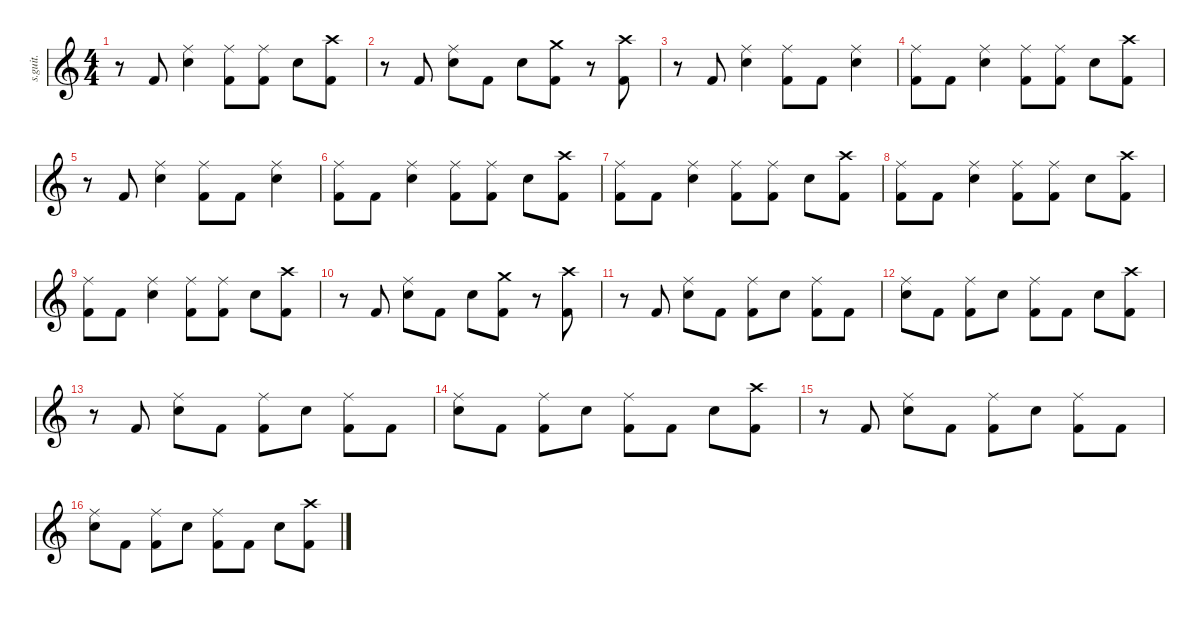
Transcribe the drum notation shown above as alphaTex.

\defaultSystemsLayout 4
\hideDynamics
\bracketExtendMode nobrackets
\track ("Nick Menza (Drums)" "s.guit.") {instrument percussion}
\staff {score}
\articulation defaults
\ts (4 4)
\tempo (196 hide)
\clef g2
\ks c
r.8{dy f} "Kick (hit) 2".8{lyrics (0 "") lyrics (1 "") lyrics (2 "") lyrics (3 "") lyrics (4 "")} ("Ride (middle)" "Snare (hit) 2").4{lyrics (0 "") lyrics (1 "") lyrics (2 "") lyrics (3 "") lyrics (4 "")} ("Ride (middle)" "Kick (hit) 2").8{lyrics (0 "") lyrics (1 "") lyrics (2 "") lyrics (3 "") lyrics (4 "")} ("Ride (middle)" "Kick (hit) 2").8{lyrics (0 "") lyrics (1 "") lyrics (2 "") lyrics (3 "") lyrics (4 "")} "Snare (hit) 2".8{lyrics (0 "") lyrics (1 "") lyrics (2 "") lyrics (3 "") lyrics (4 "")} ("Crash high (hit)" "Kick (hit) 2").8{lyrics (0 "") lyrics (1 "") lyrics (2 "") lyrics (3 "") lyrics (4 "")} |
r.8 "Kick (hit) 2".8{lyrics (0 "") lyrics (1 "") lyrics (2 "") lyrics (3 "") lyrics (4 "")} ("Ride (middle)" "Snare (hit) 2").8{lyrics (0 "") lyrics (1 "") lyrics (2 "") lyrics (3 "") lyrics (4 "")} "Kick (hit) 2".8{lyrics (0 "") lyrics (1 "") lyrics (2 "") lyrics (3 "") lyrics (4 "")} "Snare (hit) 2".8{lyrics (0 "") lyrics (1 "") lyrics (2 "") lyrics (3 "") lyrics (4 "")} ("Crash medium (hit)" "Kick (hit) 2").8{lyrics (0 "") lyrics (1 "") lyrics (2 "") lyrics (3 "") lyrics (4 "")} r.8 ("Crash high (hit)" "Kick (hit) 2").8{lyrics (0 "") lyrics (1 "") lyrics (2 "") lyrics (3 "") lyrics (4 "")} |
r.8 "Kick (hit) 2".8{lyrics (0 "") lyrics (1 "") lyrics (2 "") lyrics (3 "") lyrics (4 "")} ("Ride (middle)" "Snare (hit) 2").4{lyrics (0 "") lyrics (1 "") lyrics (2 "") lyrics (3 "") lyrics (4 "")} ("Ride (middle)" "Kick (hit) 2").8{lyrics (0 "") lyrics (1 "") lyrics (2 "") lyrics (3 "") lyrics (4 "")} "Kick (hit) 2".8{lyrics (0 "") lyrics (1 "") lyrics (2 "") lyrics (3 "") lyrics (4 "")} ("Ride (middle)" "Snare (hit) 2").4{lyrics (0 "") lyrics (1 "") lyrics (2 "") lyrics (3 "") lyrics (4 "")} |
("Ride (middle)" "Kick (hit) 2").8{lyrics (0 "") lyrics (1 "") lyrics (2 "") lyrics (3 "") lyrics (4 "")} "Kick (hit) 2".8{lyrics (0 "") lyrics (1 "") lyrics (2 "") lyrics (3 "") lyrics (4 "")} ("Ride (middle)" "Snare (hit) 2").4{lyrics (0 "") lyrics (1 "") lyrics (2 "") lyrics (3 "") lyrics (4 "")} ("Ride (middle)" "Kick (hit) 2").8{lyrics (0 "") lyrics (1 "") lyrics (2 "") lyrics (3 "") lyrics (4 "")} ("Ride (middle)" "Kick (hit) 2").8{lyrics (0 "") lyrics (1 "") lyrics (2 "") lyrics (3 "") lyrics (4 "")} "Snare (hit) 2".8{lyrics (0 "") lyrics (1 "") lyrics (2 "") lyrics (3 "") lyrics (4 "")} ("Crash high (hit)" "Kick (hit) 2").8{lyrics (0 "") lyrics (1 "") lyrics (2 "") lyrics (3 "") lyrics (4 "")} |
r.8 "Kick (hit) 2".8{lyrics (0 "") lyrics (1 "") lyrics (2 "") lyrics (3 "") lyrics (4 "")} ("Ride (middle)" "Snare (hit) 2").4{lyrics (0 "") lyrics (1 "") lyrics (2 "") lyrics (3 "") lyrics (4 "")} ("Ride (middle)" "Kick (hit) 2").8{lyrics (0 "") lyrics (1 "") lyrics (2 "") lyrics (3 "") lyrics (4 "")} "Kick (hit) 2".8{lyrics (0 "") lyrics (1 "") lyrics (2 "") lyrics (3 "") lyrics (4 "")} ("Ride (middle)" "Snare (hit) 2").4{lyrics (0 "") lyrics (1 "") lyrics (2 "") lyrics (3 "") lyrics (4 "")} |
("Ride (middle)" "Kick (hit) 2").8{lyrics (0 "") lyrics (1 "") lyrics (2 "") lyrics (3 "") lyrics (4 "")} "Kick (hit) 2".8{lyrics (0 "") lyrics (1 "") lyrics (2 "") lyrics (3 "") lyrics (4 "")} ("Ride (middle)" "Snare (hit) 2").4{lyrics (0 "") lyrics (1 "") lyrics (2 "") lyrics (3 "") lyrics (4 "")} ("Ride (middle)" "Kick (hit) 2").8{lyrics (0 "") lyrics (1 "") lyrics (2 "") lyrics (3 "") lyrics (4 "")} ("Ride (middle)" "Kick (hit) 2").8{lyrics (0 "") lyrics (1 "") lyrics (2 "") lyrics (3 "") lyrics (4 "")} "Snare (hit) 2".8{lyrics (0 "") lyrics (1 "") lyrics (2 "") lyrics (3 "") lyrics (4 "")} ("Crash high (hit)" "Kick (hit) 2").8{lyrics (0 "") lyrics (1 "") lyrics (2 "") lyrics (3 "") lyrics (4 "")} |
("Ride (middle)" "Kick (hit) 2").8{lyrics (0 "") lyrics (1 "") lyrics (2 "") lyrics (3 "") lyrics (4 "")} "Kick (hit) 2".8{lyrics (0 "") lyrics (1 "") lyrics (2 "") lyrics (3 "") lyrics (4 "")} ("Ride (middle)" "Snare (hit) 2").4{lyrics (0 "") lyrics (1 "") lyrics (2 "") lyrics (3 "") lyrics (4 "")} ("Ride (middle)" "Kick (hit) 2").8{lyrics (0 "") lyrics (1 "") lyrics (2 "") lyrics (3 "") lyrics (4 "")} ("Ride (middle)" "Kick (hit) 2").8{lyrics (0 "") lyrics (1 "") lyrics (2 "") lyrics (3 "") lyrics (4 "")} "Snare (hit) 2".8{lyrics (0 "") lyrics (1 "") lyrics (2 "") lyrics (3 "") lyrics (4 "")} ("Crash high (hit)" "Kick (hit) 2").8{lyrics (0 "") lyrics (1 "") lyrics (2 "") lyrics (3 "") lyrics (4 "")} |
("Ride (middle)" "Kick (hit) 2").8{lyrics (0 "") lyrics (1 "") lyrics (2 "") lyrics (3 "") lyrics (4 "")} "Kick (hit) 2".8{lyrics (0 "") lyrics (1 "") lyrics (2 "") lyrics (3 "") lyrics (4 "")} ("Ride (middle)" "Snare (hit) 2").4{lyrics (0 "") lyrics (1 "") lyrics (2 "") lyrics (3 "") lyrics (4 "")} ("Ride (middle)" "Kick (hit) 2").8{lyrics (0 "") lyrics (1 "") lyrics (2 "") lyrics (3 "") lyrics (4 "")} ("Ride (middle)" "Kick (hit) 2").8{lyrics (0 "") lyrics (1 "") lyrics (2 "") lyrics (3 "") lyrics (4 "")} "Snare (hit) 2".8{lyrics (0 "") lyrics (1 "") lyrics (2 "") lyrics (3 "") lyrics (4 "")} ("Crash high (hit)" "Kick (hit) 2").8{lyrics (0 "") lyrics (1 "") lyrics (2 "") lyrics (3 "") lyrics (4 "")} |
("Ride (middle)" "Kick (hit) 2").8{lyrics (0 "") lyrics (1 "") lyrics (2 "") lyrics (3 "") lyrics (4 "")} "Kick (hit) 2".8{lyrics (0 "") lyrics (1 "") lyrics (2 "") lyrics (3 "") lyrics (4 "")} ("Ride (middle)" "Snare (hit) 2").4{lyrics (0 "") lyrics (1 "") lyrics (2 "") lyrics (3 "") lyrics (4 "")} ("Ride (middle)" "Kick (hit) 2").8{lyrics (0 "") lyrics (1 "") lyrics (2 "") lyrics (3 "") lyrics (4 "")} ("Ride (middle)" "Kick (hit) 2").8{lyrics (0 "") lyrics (1 "") lyrics (2 "") lyrics (3 "") lyrics (4 "")} "Snare (hit) 2".8{lyrics (0 "") lyrics (1 "") lyrics (2 "") lyrics (3 "") lyrics (4 "")} ("Crash high (hit)" "Kick (hit) 2").8{lyrics (0 "") lyrics (1 "") lyrics (2 "") lyrics (3 "") lyrics (4 "")} |
r.8 "Kick (hit) 2".8{lyrics (0 "") lyrics (1 "") lyrics (2 "") lyrics (3 "") lyrics (4 "")} ("Ride (middle)" "Snare (hit) 2").8{lyrics (0 "") lyrics (1 "") lyrics (2 "") lyrics (3 "") lyrics (4 "")} "Kick (hit) 2".8{lyrics (0 "") lyrics (1 "") lyrics (2 "") lyrics (3 "") lyrics (4 "")} "Snare (hit) 2".8{lyrics (0 "") lyrics (1 "") lyrics (2 "") lyrics (3 "") lyrics (4 "")} ("Crash medium (hit)" "Kick (hit) 2").8{lyrics (0 "") lyrics (1 "") lyrics (2 "") lyrics (3 "") lyrics (4 "")} r.8 ("Crash high (hit)" "Kick (hit) 2").8{lyrics (0 "") lyrics (1 "") lyrics (2 "") lyrics (3 "") lyrics (4 "")} |
r.8 "Kick (hit) 2".8{lyrics (0 "") lyrics (1 "") lyrics (2 "") lyrics (3 "") lyrics (4 "") dy fff} ("Ride (middle)" "Snare (hit) 2").8{lyrics (0 "") lyrics (1 "") lyrics (2 "") lyrics (3 "") lyrics (4 "") dy f} "Kick (hit) 2".8{lyrics (0 "") lyrics (1 "") lyrics (2 "") lyrics (3 "") lyrics (4 "") dy fff} ("Ride (middle)" "Kick (hit) 2").8{lyrics (0 "") lyrics (1 "") lyrics (2 "") lyrics (3 "") lyrics (4 "") dy f} "Snare (hit) 2".8{lyrics (0 "") lyrics (1 "") lyrics (2 "") lyrics (3 "") lyrics (4 "")} ("Ride (middle)" "Kick (hit) 2").8{lyrics (0 "") lyrics (1 "") lyrics (2 "") lyrics (3 "") lyrics (4 "")} "Kick (hit) 2".8{lyrics (0 "") lyrics (1 "") lyrics (2 "") lyrics (3 "") lyrics (4 "")} |
("Ride (middle)" "Snare (hit) 2").8{lyrics (0 "") lyrics (1 "") lyrics (2 "") lyrics (3 "") lyrics (4 "")} "Kick (hit) 2".8{lyrics (0 "") lyrics (1 "") lyrics (2 "") lyrics (3 "") lyrics (4 "") dy fff} ("Ride (middle)" "Kick (hit) 2").8{lyrics (0 "") lyrics (1 "") lyrics (2 "") lyrics (3 "") lyrics (4 "") dy f} "Snare (hit) 2".8{lyrics (0 "") lyrics (1 "") lyrics (2 "") lyrics (3 "") lyrics (4 "")} ("Ride (middle)" "Kick (hit) 2").8{lyrics (0 "") lyrics (1 "") lyrics (2 "") lyrics (3 "") lyrics (4 "")} "Kick (hit) 2".8{lyrics (0 "") lyrics (1 "") lyrics (2 "") lyrics (3 "") lyrics (4 "") dy fff} "Snare (hit) 2".8{lyrics (0 "") lyrics (1 "") lyrics (2 "") lyrics (3 "") lyrics (4 "") dy f} ("Crash high (hit)" "Kick (hit) 2").8{lyrics (0 "") lyrics (1 "") lyrics (2 "") lyrics (3 "") lyrics (4 "")} |
r.8 "Kick (hit) 2".8{lyrics (0 "") lyrics (1 "") lyrics (2 "") lyrics (3 "") lyrics (4 "") dy fff} ("Ride (middle)" "Snare (hit) 2").8{lyrics (0 "") lyrics (1 "") lyrics (2 "") lyrics (3 "") lyrics (4 "") dy f} "Kick (hit) 2".8{lyrics (0 "") lyrics (1 "") lyrics (2 "") lyrics (3 "") lyrics (4 "") dy fff} ("Ride (middle)" "Kick (hit) 2").8{lyrics (0 "") lyrics (1 "") lyrics (2 "") lyrics (3 "") lyrics (4 "") dy f} "Snare (hit) 2".8{lyrics (0 "") lyrics (1 "") lyrics (2 "") lyrics (3 "") lyrics (4 "")} ("Ride (middle)" "Kick (hit) 2").8{lyrics (0 "") lyrics (1 "") lyrics (2 "") lyrics (3 "") lyrics (4 "")} "Kick (hit) 2".8{lyrics (0 "") lyrics (1 "") lyrics (2 "") lyrics (3 "") lyrics (4 "")} |
("Ride (middle)" "Snare (hit) 2").8{lyrics (0 "") lyrics (1 "") lyrics (2 "") lyrics (3 "") lyrics (4 "")} "Kick (hit) 2".8{lyrics (0 "") lyrics (1 "") lyrics (2 "") lyrics (3 "") lyrics (4 "") dy fff} ("Ride (middle)" "Kick (hit) 2").8{lyrics (0 "") lyrics (1 "") lyrics (2 "") lyrics (3 "") lyrics (4 "") dy f} "Snare (hit) 2".8{lyrics (0 "") lyrics (1 "") lyrics (2 "") lyrics (3 "") lyrics (4 "")} ("Ride (middle)" "Kick (hit) 2").8{lyrics (0 "") lyrics (1 "") lyrics (2 "") lyrics (3 "") lyrics (4 "")} "Kick (hit) 2".8{lyrics (0 "") lyrics (1 "") lyrics (2 "") lyrics (3 "") lyrics (4 "") dy fff} "Snare (hit) 2".8{lyrics (0 "") lyrics (1 "") lyrics (2 "") lyrics (3 "") lyrics (4 "") dy f} ("Crash high (hit)" "Kick (hit) 2").8{lyrics (0 "") lyrics (1 "") lyrics (2 "") lyrics (3 "") lyrics (4 "")} |
r.8 "Kick (hit) 2".8{lyrics (0 "") lyrics (1 "") lyrics (2 "") lyrics (3 "") lyrics (4 "") dy fff} ("Ride (middle)" "Snare (hit) 2").8{lyrics (0 "") lyrics (1 "") lyrics (2 "") lyrics (3 "") lyrics (4 "") dy f} "Kick (hit) 2".8{lyrics (0 "") lyrics (1 "") lyrics (2 "") lyrics (3 "") lyrics (4 "") dy fff} ("Ride (middle)" "Kick (hit) 2").8{lyrics (0 "") lyrics (1 "") lyrics (2 "") lyrics (3 "") lyrics (4 "") dy f} "Snare (hit) 2".8{lyrics (0 "") lyrics (1 "") lyrics (2 "") lyrics (3 "") lyrics (4 "")} ("Ride (middle)" "Kick (hit) 2").8{lyrics (0 "") lyrics (1 "") lyrics (2 "") lyrics (3 "") lyrics (4 "")} "Kick (hit) 2".8{lyrics (0 "") lyrics (1 "") lyrics (2 "") lyrics (3 "") lyrics (4 "")} |
("Ride (middle)" "Snare (hit) 2").8{lyrics (0 "") lyrics (1 "") lyrics (2 "") lyrics (3 "") lyrics (4 "")} "Kick (hit) 2".8{lyrics (0 "") lyrics (1 "") lyrics (2 "") lyrics (3 "") lyrics (4 "") dy fff} ("Ride (middle)" "Kick (hit) 2").8{lyrics (0 "") lyrics (1 "") lyrics (2 "") lyrics (3 "") lyrics (4 "") dy f} "Snare (hit) 2".8{lyrics (0 "") lyrics (1 "") lyrics (2 "") lyrics (3 "") lyrics (4 "")} ("Ride (middle)" "Kick (hit) 2").8{lyrics (0 "") lyrics (1 "") lyrics (2 "") lyrics (3 "") lyrics (4 "")} "Kick (hit) 2".8{lyrics (0 "") lyrics (1 "") lyrics (2 "") lyrics (3 "") lyrics (4 "") dy fff} "Snare (hit) 2".8{lyrics (0 "") lyrics (1 "") lyrics (2 "") lyrics (3 "") lyrics (4 "") dy f} ("Crash high (hit)" "Kick (hit) 2").8{lyrics (0 "") lyrics (1 "") lyrics (2 "") lyrics (3 "") lyrics (4 "")}
